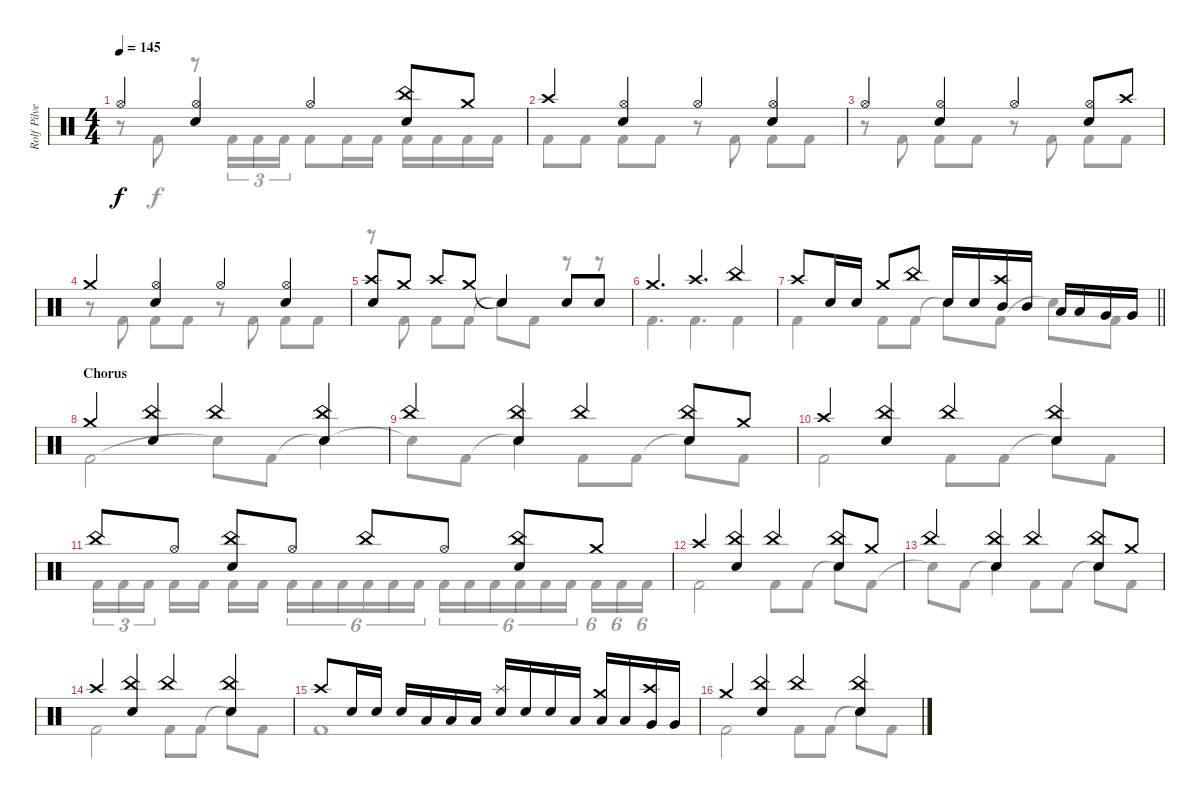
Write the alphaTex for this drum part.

\track ("Rolf Pilve - drums" "Rolf Pilve") {instrument percussion}
\staff {score}
\articulation defaults
\voice
\ts (4 4)
\tempo 145
\clef neutral
\ks aminor "Hi-Hat (open)".4{dy f}
("Hi-Hat (open)" "Electric Snare (hit)").4 "Hi-Hat (open)".4 ("China (hit)" "Electric Snare (hit)").8 "Crash medium (hit)".8 |
"Crash high (hit)".4 ("Hi-Hat (open)" "Electric Snare (hit)").4 "Hi-Hat (open)".4 ("Hi-Hat (open)" "Electric Snare (hit)").4 |
"Hi-Hat (open)".4 ("Hi-Hat (open)" "Electric Snare (hit)").4 "Hi-Hat (open)".4 ("Hi-Hat (open)" "Electric Snare (hit)").8 "Crash high (hit)".8 |
"Crash medium (hit)".4 ("Hi-Hat (open)" "Electric Snare (hit)").4 "Hi-Hat (open)".4 ("Hi-Hat (open)" "Electric Snare (hit)").4 |
("Crash high (hit)" "Electric Snare (hit)").8 "Crash medium (hit)".8 "Crash high (hit)".8 "Crash medium (hit)".8 "Snare (hit)"{t}.4 "Electric Snare (hit)".8 "Electric Snare (hit)".8 |
"Crash medium (hit)".4{d} "Crash high (hit)".4{d} "China (hit)".4 |
\barLineRight lightlight "Crash high (hit)".8 "Electric Snare (hit)".16 "Electric Snare (hit)".16 "Crash medium (hit)".8 "China (hit)".8 "Electric Snare (hit)".16 "Electric Snare (hit)".16
("Crash high (hit)" "Mid Tom (hit)").16 "Mid Tom (hit)".16 "Low Tom (hit)".16 "Low Tom (hit)".16 "Very Low Tom (hit)".16 "Very Low Tom (hit)".16 |
\section ("" "Chorus")
"Crash medium (hit)".4 ("China (hit)" "Electric Snare (hit)").4 "China (hit)".4 ("China (hit)" "Electric Snare (hit)").4 |
"China (hit)".4 ("China (hit)" "Electric Snare (hit)").4 "China (hit)".4 ("China (hit)" "Electric Snare (hit)").8 "Crash medium (hit)".8 |
"Crash high (hit)".4 ("China (hit)" "Electric Snare (hit)").4 "China (hit)".4 ("China (hit)" "Electric Snare (hit)").4 |
"China (hit)".8 "Hi-Hat (open)".8 ("China (hit)" "Electric Snare (hit)").8 "Hi-Hat (open)".8 "China (hit)".8 "Hi-Hat (open)".8 ("China (hit)" "Electric Snare (hit)").8 "Crash medium (hit)".8 |
"Crash high (hit)".4 ("China (hit)" "Electric Snare (hit)").4 "China (hit)".4 ("China (hit)" "Electric Snare (hit)").8 "Crash medium (hit)".8 |
"China (hit)".4 ("China (hit)" "Electric Snare (hit)").4 "China (hit)".4 ("China (hit)" "Electric Snare (hit)").8 "Crash medium (hit)".8 |
"Crash high (hit)".4 ("China (hit)" "Electric Snare (hit)").4 "China (hit)".4 ("China (hit)" "Electric Snare (hit)").4 |
"Crash high (hit)".8 "Electric Snare (hit)".16 "Electric Snare (hit)".16 "Electric Snare (hit)".16 "Low Tom (hit)".16 "Low Tom (hit)".16 "Low Tom (hit)".16 ("Splash (hit)" "Electric Snare (hit)").16 "Electric Snare (hit)".16 "Electric Snare (hit)".16 "Low Tom (hit)".16 ("Crash medium (hit)" "Low Tom (hit)").16 "Low Tom (hit)".16 ("Crash high (hit)" "Very Low Tom (hit)").16 "Very Low Tom (hit)".16 |
"Crash medium (hit)".4 ("China (hit)" "Electric Snare (hit)").4 "China (hit)".4 ("China (hit)" "Electric Snare (hit)").4
\voice
\clef neutral
\ottava regular
\simile none
\ks aminor
r.8{dy f} "Kick (hit) 2".8 r.8 "Kick (hit) 2".16{tu (3 2)} "Kick (hit) 2".16{tu (3 2)} "Kick (hit) 2".16{tu (3 2)} "Kick (hit) 2".8 "Kick (hit) 2".16 "Kick (hit) 2".16 "Kick (hit) 2".16 "Kick (hit) 2".16 "Kick (hit) 2".16 "Kick (hit) 2".16 |
"Kick (hit) 2".8 "Kick (hit) 2".8 "Kick (hit) 2".8 "Kick (hit) 2".8 r.8 "Kick (hit) 2".8 "Kick (hit) 2".8 "Kick (hit) 2".8 |
r.8 "Kick (hit) 2".8 "Kick (hit) 2".8 "Kick (hit) 2".8 r.8 "Kick (hit) 2".8 "Kick (hit) 2".8 "Kick (hit) 2".8 |
r.8 "Kick (hit) 2".8 "Kick (hit) 2".8 "Kick (hit) 2".8 r.8 "Kick (hit) 2".8 "Kick (hit) 2".8 "Kick (hit) 2".8 |
r.8 "Kick (hit) 2".8 "Kick (hit) 2".8 "Kick (hit) 2".8 "Snare (hit)"{t}.8 "Kick (hit) 2".8 r.8 r.8 |
"Kick (hit) 2".4{d} "Kick (hit) 2".4{d} "Kick (hit) 2".4 |
\barLineRight lightlight "Kick (hit) 2".4 "Kick (hit) 2".8 "Kick (hit) 2".8 "Snare (hit)"{t}.8 "Kick (hit) 2".8 "Snare (hit)"{t}.8 "Kick (hit) 2".8
|
"Kick (hit) 2".2 "Snare (hit)"{t}.8 "Kick (hit) 2".8 "Snare (hit)"{t}.4 |
"Snare (hit)"{t}.8 "Kick (hit) 2".8 "Snare (hit)"{t}.4 "Kick (hit) 2".8 "Kick (hit) 2".8 "Snare (hit)"{t}.8 "Kick (hit) 2".8 |
"Kick (hit) 2".2 "Kick (hit) 2".8 "Kick (hit) 2".8 "Snare (hit)"{t}.8 "Kick (hit) 2".8 |
"Kick (hit) 2".16{tu (3 2)} "Kick (hit) 2".16{tu (3 2)} "Kick (hit) 2".16{tu (3 2) beam splitsecondary} "Kick (hit) 2".16 "Kick (hit) 2".16 "Kick (hit) 2".16 "Kick (hit) 2".16{beam splitsecondary} "Kick (hit) 2".16{tu (6 4)} "Kick (hit) 2".16{tu (6 4)} "Kick (hit) 2".16{tu (6 4)} "Kick (hit) 2".16{tu (6 4)} "Kick (hit) 2".16{tu (6 4)} "Kick (hit) 2".16{tu (6 4) beam splitsecondary} "Kick (hit) 2".16{tu (6 4)} "Kick (hit) 2".16{tu (6 4)} "Kick (hit) 2".16{tu (6 4)} "Kick (hit) 2".16{tu (6 4)} "Kick (hit) 2".16{tu (6 4)} "Kick (hit) 2".16{tu (6 4) beam splitsecondary} "Kick (hit) 2".16{tu (6 4)} "Kick (hit) 2".16{tu (6 4)} "Kick (hit) 2".16{tu (6 4)} |
"Kick (hit) 2".2 "Kick (hit) 2".8 "Kick (hit) 2".8 "Snare (hit)"{t}.8 "Kick (hit) 2".8 |
"Snare (hit)"{t}.8 "Kick (hit) 2".8 "Snare (hit)"{t}.4 "Kick (hit) 2".8 "Kick (hit) 2".8 "Snare (hit)"{t}.8 "Kick (hit) 2".8 |
"Kick (hit) 2".2 "Kick (hit) 2".8 "Kick (hit) 2".8 "Snare (hit)"{t}.8 "Kick (hit) 2".8 |
"Kick (hit) 2".1 |
"Kick (hit) 2".2 "Kick (hit) 2".8 "Kick (hit) 2".8 "Snare (hit)"{t}.8 "Kick (hit) 2".8
